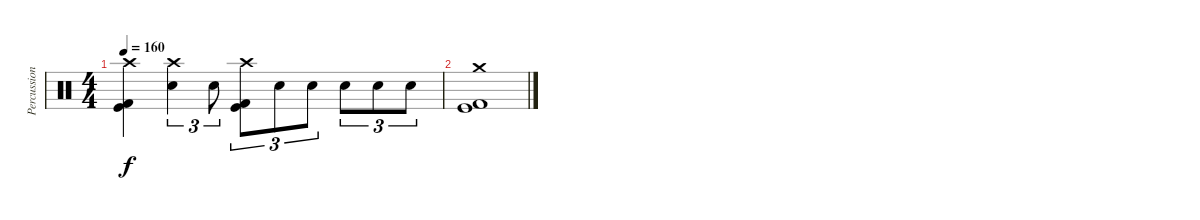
\track ("Percussion" "Percussion") {instrument percussion}
\staff {score}
\articulation defaults
\ts (4 4)
\tempo 160
\clef neutral
\ks c
("Crash high (hit)" "Kick (hit)" "Kick (hit) 2").4{dy f} ("Crash high (hit)" "Electric Snare (hit)").4{tu (3 2)} "Electric Snare (hit)".8{tu (3 2)} ("Crash high (hit)" "Kick (hit)" "Kick (hit) 2").8{tu (3 2)} "Electric Snare (hit)".8{tu (3 2)} "Electric Snare (hit)".8{tu (3 2)} "Electric Snare (hit)".8{tu (3 2)} "Electric Snare (hit)".8{tu (3 2)} "Electric Snare (hit)".8{tu (3 2)} |
("Crash medium (hit)" "Kick (hit)" "Kick (hit) 2").1
